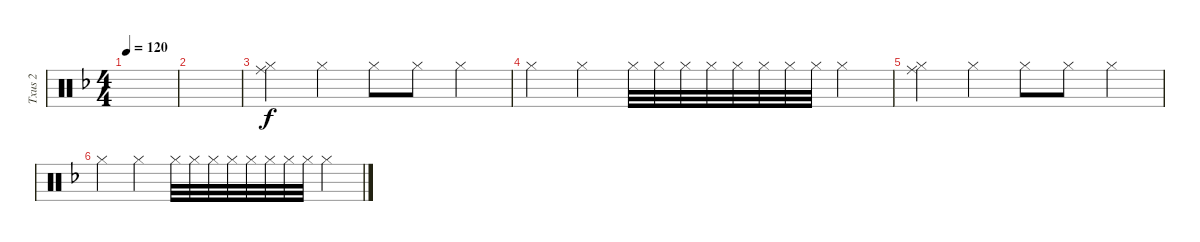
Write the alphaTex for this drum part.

\track ("Txus 2" "Txus 2") {instrument percussion}
\staff {score}
\articulation defaults
\ts (4 4)
\tempo 120
\clef neutral
\ks dminor
|
|
("Hi-Hat (closed)" "Ride (middle)").4 "Hi-Hat (closed)".4 "Hi-Hat (closed)".8 "Hi-Hat (closed)".8 "Hi-Hat (closed)".4 |
"Hi-Hat (closed)".4 "Hi-Hat (closed)".4 "Hi-Hat (closed)".32 "Hi-Hat (closed)".32 "Hi-Hat (closed)".32 "Hi-Hat (closed)".32 "Hi-Hat (closed)".32 "Hi-Hat (closed)".32 "Hi-Hat (closed)".32 "Hi-Hat (closed)".32 "Hi-Hat (closed)".4 |
("Hi-Hat (closed)" "Ride (middle)").4 "Hi-Hat (closed)".4 "Hi-Hat (closed)".8 "Hi-Hat (closed)".8 "Hi-Hat (closed)".4 |
"Hi-Hat (closed)".4 "Hi-Hat (closed)".4 "Hi-Hat (closed)".32 "Hi-Hat (closed)".32 "Hi-Hat (closed)".32 "Hi-Hat (closed)".32 "Hi-Hat (closed)".32 "Hi-Hat (closed)".32 "Hi-Hat (closed)".32 "Hi-Hat (closed)".32 "Hi-Hat (closed)".4
